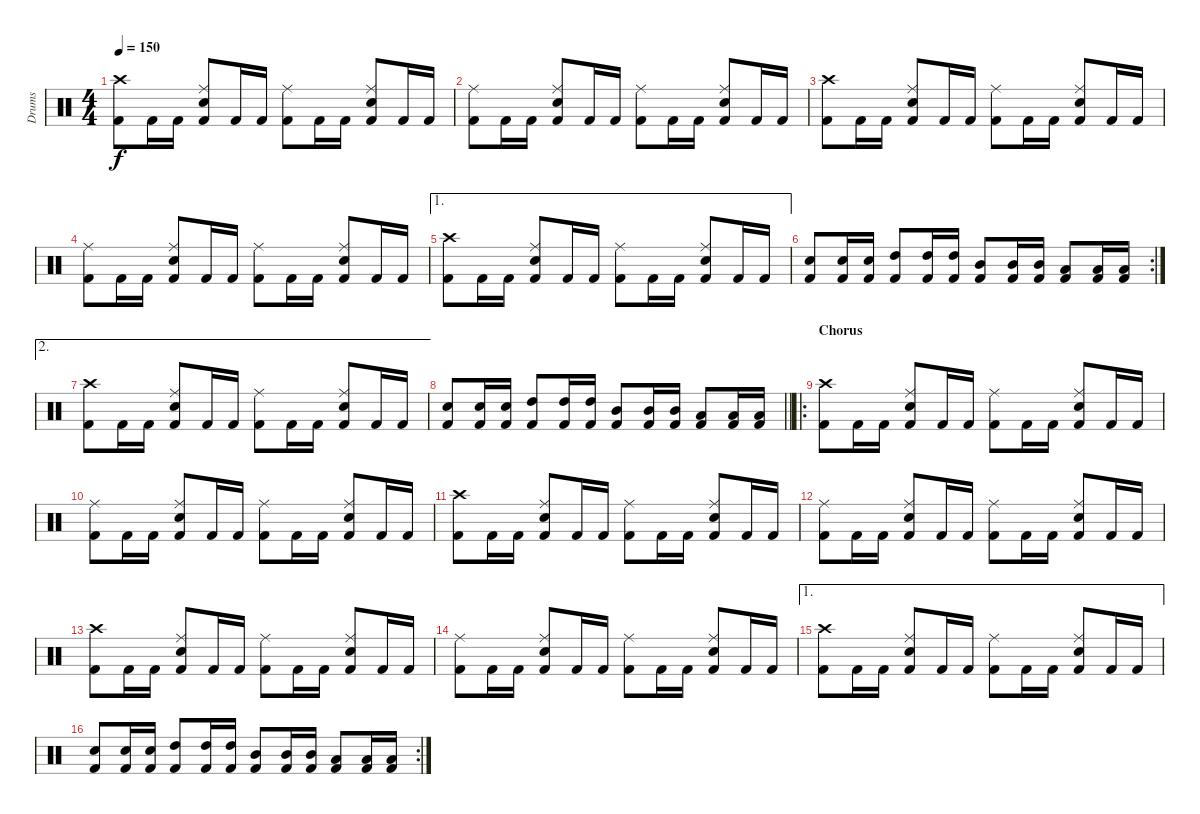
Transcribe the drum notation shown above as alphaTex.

\track ("Drums" "Drums") {instrument percussion}
\staff {score}
\articulation defaults
\ts (4 4)
\tempo 150
\clef neutral
\ks c
("Crash high (hit)" "Kick (hit) 2").8{dy f} "Kick (hit) 2".16 "Kick (hit) 2".16 ("Ride (middle)" "Snare (hit) 2" "Kick (hit) 2").8 "Kick (hit) 2".16 "Kick (hit) 2".16 ("Ride (middle)" "Kick (hit) 2").8 "Kick (hit) 2".16 "Kick (hit) 2".16 ("Ride (middle)" "Snare (hit) 2" "Kick (hit) 2").8 "Kick (hit) 2".16 "Kick (hit) 2".16 |
("Ride (middle)" "Kick (hit) 2").8 "Kick (hit) 2".16 "Kick (hit) 2".16 ("Ride (middle)" "Snare (hit) 2" "Kick (hit) 2").8 "Kick (hit) 2".16 "Kick (hit) 2".16 ("Ride (middle)" "Kick (hit) 2").8 "Kick (hit) 2".16 "Kick (hit) 2".16 ("Ride (middle)" "Snare (hit) 2" "Kick (hit) 2").8 "Kick (hit) 2".16 "Kick (hit) 2".16 |
("Crash high (hit)" "Kick (hit) 2").8 "Kick (hit) 2".16 "Kick (hit) 2".16 ("Ride (middle)" "Snare (hit) 2" "Kick (hit) 2").8 "Kick (hit) 2".16 "Kick (hit) 2".16 ("Ride (middle)" "Kick (hit) 2").8 "Kick (hit) 2".16 "Kick (hit) 2".16 ("Ride (middle)" "Snare (hit) 2" "Kick (hit) 2").8 "Kick (hit) 2".16 "Kick (hit) 2".16 |
("Ride (middle)" "Kick (hit) 2").8 "Kick (hit) 2".16 "Kick (hit) 2".16 ("Ride (middle)" "Snare (hit) 2" "Kick (hit) 2").8 "Kick (hit) 2".16 "Kick (hit) 2".16 ("Ride (middle)" "Kick (hit) 2").8 "Kick (hit) 2".16 "Kick (hit) 2".16 ("Ride (middle)" "Snare (hit) 2" "Kick (hit) 2").8 "Kick (hit) 2".16 "Kick (hit) 2".16 |
\ae 1
("Crash high (hit)" "Kick (hit) 2").8 "Kick (hit) 2".16 "Kick (hit) 2".16 ("Ride (middle)" "Snare (hit) 2" "Kick (hit) 2").8 "Kick (hit) 2".16 "Kick (hit) 2".16 ("Ride (middle)" "Kick (hit) 2").8 "Kick (hit) 2".16 "Kick (hit) 2".16 ("Ride (middle)" "Snare (hit) 2" "Kick (hit) 2").8 "Kick (hit) 2".16 "Kick (hit) 2".16 |
\rc 2
("Snare (hit) 2" "Kick (hit) 2").8 ("Snare (hit) 2" "Kick (hit) 2").16 ("Snare (hit) 2" "Kick (hit) 2").16 ("High Tom (hit)" "Kick (hit) 2").8 ("High Tom (hit)" "Kick (hit) 2").16 ("High Tom (hit)" "Kick (hit) 2").16 ("Mid Tom (hit)" "Kick (hit) 2").8 ("Mid Tom (hit)" "Kick (hit) 2").16 ("Mid Tom (hit)" "Kick (hit) 2").16 ("Low Tom (hit)" "Kick (hit) 2").8 ("Low Tom (hit)" "Kick (hit) 2").16 ("Low Tom (hit)" "Kick (hit) 2").16 |
\ae 2
("Crash high (hit)" "Kick (hit) 2").8 "Kick (hit) 2".16 "Kick (hit) 2".16 ("Ride (middle)" "Snare (hit) 2" "Kick (hit) 2").8 "Kick (hit) 2".16 "Kick (hit) 2".16 ("Ride (middle)" "Kick (hit) 2").8 "Kick (hit) 2".16 "Kick (hit) 2".16 ("Ride (middle)" "Snare (hit) 2" "Kick (hit) 2").8 "Kick (hit) 2".16 "Kick (hit) 2".16 |
\barLineRight lightlight
("Snare (hit) 2" "Kick (hit) 2").8 ("Snare (hit) 2" "Kick (hit) 2").16 ("Snare (hit) 2" "Kick (hit) 2").16 ("High Tom (hit)" "Kick (hit) 2").8 ("High Tom (hit)" "Kick (hit) 2").16 ("High Tom (hit)" "Kick (hit) 2").16 ("Mid Tom (hit)" "Kick (hit) 2").8 ("Mid Tom (hit)" "Kick (hit) 2").16 ("Mid Tom (hit)" "Kick (hit) 2").16 ("Low Tom (hit)" "Kick (hit) 2").8 ("Low Tom (hit)" "Kick (hit) 2").16 ("Low Tom (hit)" "Kick (hit) 2").16 |
\ro
\section ("" "Chorus")
("Crash high (hit)" "Kick (hit) 2").8 "Kick (hit) 2".16 "Kick (hit) 2".16 ("Ride (middle)" "Snare (hit) 2" "Kick (hit) 2").8 "Kick (hit) 2".16 "Kick (hit) 2".16 ("Ride (middle)" "Kick (hit) 2").8 "Kick (hit) 2".16 "Kick (hit) 2".16 ("Ride (middle)" "Snare (hit) 2" "Kick (hit) 2").8 "Kick (hit) 2".16 "Kick (hit) 2".16 |
("Ride (middle)" "Kick (hit) 2").8 "Kick (hit) 2".16 "Kick (hit) 2".16 ("Ride (middle)" "Snare (hit) 2" "Kick (hit) 2").8 "Kick (hit) 2".16 "Kick (hit) 2".16 ("Ride (middle)" "Kick (hit) 2").8 "Kick (hit) 2".16 "Kick (hit) 2".16 ("Ride (middle)" "Snare (hit) 2" "Kick (hit) 2").8 "Kick (hit) 2".16 "Kick (hit) 2".16 |
("Crash high (hit)" "Kick (hit) 2").8 "Kick (hit) 2".16 "Kick (hit) 2".16 ("Ride (middle)" "Snare (hit) 2" "Kick (hit) 2").8 "Kick (hit) 2".16 "Kick (hit) 2".16 ("Ride (middle)" "Kick (hit) 2").8 "Kick (hit) 2".16 "Kick (hit) 2".16 ("Ride (middle)" "Snare (hit) 2" "Kick (hit) 2").8 "Kick (hit) 2".16 "Kick (hit) 2".16 |
("Ride (middle)" "Kick (hit) 2").8 "Kick (hit) 2".16 "Kick (hit) 2".16 ("Ride (middle)" "Snare (hit) 2" "Kick (hit) 2").8 "Kick (hit) 2".16 "Kick (hit) 2".16 ("Ride (middle)" "Kick (hit) 2").8 "Kick (hit) 2".16 "Kick (hit) 2".16 ("Ride (middle)" "Snare (hit) 2" "Kick (hit) 2").8 "Kick (hit) 2".16 "Kick (hit) 2".16 |
("Crash high (hit)" "Kick (hit) 2").8 "Kick (hit) 2".16 "Kick (hit) 2".16 ("Ride (middle)" "Snare (hit) 2" "Kick (hit) 2").8 "Kick (hit) 2".16 "Kick (hit) 2".16 ("Ride (middle)" "Kick (hit) 2").8 "Kick (hit) 2".16 "Kick (hit) 2".16 ("Ride (middle)" "Snare (hit) 2" "Kick (hit) 2").8 "Kick (hit) 2".16 "Kick (hit) 2".16 |
("Ride (middle)" "Kick (hit) 2").8 "Kick (hit) 2".16 "Kick (hit) 2".16 ("Ride (middle)" "Snare (hit) 2" "Kick (hit) 2").8 "Kick (hit) 2".16 "Kick (hit) 2".16 ("Ride (middle)" "Kick (hit) 2").8 "Kick (hit) 2".16 "Kick (hit) 2".16 ("Ride (middle)" "Snare (hit) 2" "Kick (hit) 2").8 "Kick (hit) 2".16 "Kick (hit) 2".16 |
\ae 1
("Crash high (hit)" "Kick (hit) 2").8 "Kick (hit) 2".16 "Kick (hit) 2".16 ("Ride (middle)" "Snare (hit) 2" "Kick (hit) 2").8 "Kick (hit) 2".16 "Kick (hit) 2".16 ("Ride (middle)" "Kick (hit) 2").8 "Kick (hit) 2".16 "Kick (hit) 2".16 ("Ride (middle)" "Snare (hit) 2" "Kick (hit) 2").8 "Kick (hit) 2".16 "Kick (hit) 2".16 |
\rc 2
("Snare (hit) 2" "Kick (hit) 2").8 ("Snare (hit) 2" "Kick (hit) 2").16 ("Snare (hit) 2" "Kick (hit) 2").16 ("High Tom (hit)" "Kick (hit) 2").8 ("High Tom (hit)" "Kick (hit) 2").16 ("High Tom (hit)" "Kick (hit) 2").16 ("Mid Tom (hit)" "Kick (hit) 2").8 ("Mid Tom (hit)" "Kick (hit) 2").16 ("Mid Tom (hit)" "Kick (hit) 2").16 ("Low Tom (hit)" "Kick (hit) 2").8 ("Low Tom (hit)" "Kick (hit) 2").16 ("Low Tom (hit)" "Kick (hit) 2").16
